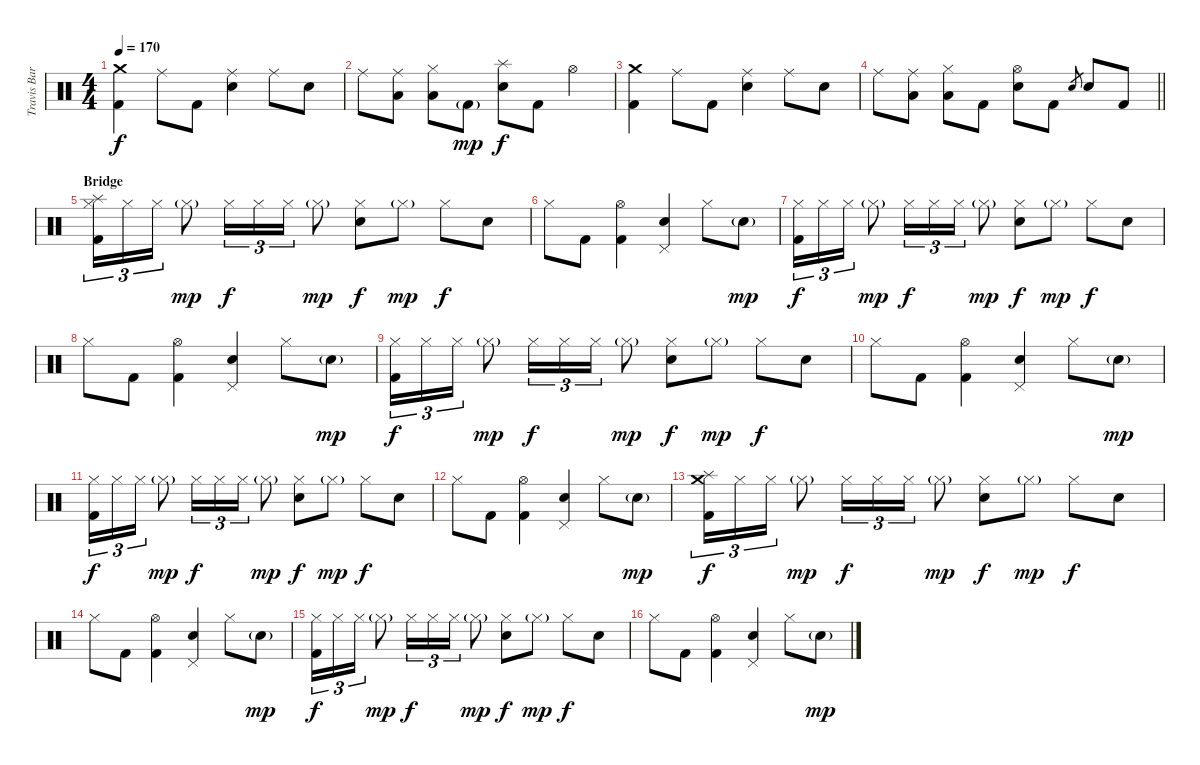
\track ("Travis Barker - Drums" "Travis Bar") {instrument percussion}
\staff {score}
\articulation defaults
\ts (4 4)
\tempo 170
\clef neutral
\ks c
("Crash medium (hit)" "Kick (hit) 2").4{dy f} "Ride (middle)".8 "Kick (hit) 2".8 ("Ride (middle)" "Electric Snare (hit)").4 "Ride (middle)".8 "Electric Snare (hit)".8 |
"Ride (middle)".8 ("Ride (middle)" "Low Tom (hit)").8 ("Hi-Hat (closed)" "Low Tom (hit)").8 "Kick (hit) 2"{g}.8{dy mp} ("Splash (hit)" "Electric Snare (hit)").8{dy f} "Kick (hit) 2".8 "Hi-Hat (open)".4 |
("Crash medium (hit)" "Kick (hit) 2").4 "Ride (middle)".8 "Kick (hit) 2".8 ("Ride (middle)" "Electric Snare (hit)").4 "Ride (middle)".8 "Electric Snare (hit)".8 |
\barLineRight lightlight "Ride (middle)".8
("Ride (middle)" "Low Tom (hit)").8 ("Hi-Hat (closed)" "Low Tom (hit)").8 "Kick (hit) 2".8 ("Hi-Hat (open)" "Electric Snare (hit)").8 "Kick (hit) 2".8 "Electric Snare (hit)".8{gr} "Electric Snare (hit)".8 "Kick (hit) 2".8 |
\section ("" "Bridge")
("Hi-Hat (closed)" "Splash (hit)" "Kick (hit) 2").16{tu (3 2)} "Hi-Hat (closed)".16{tu (3 2)} "Hi-Hat (closed)".16{tu (3 2)} "Hi-Hat (closed)"{g}.8{dy mp} "Hi-Hat (closed)".16{tu (3 2) dy f} "Hi-Hat (closed)".16{tu (3 2)} "Hi-Hat (closed)".16{tu (3 2)} "Hi-Hat (closed)"{g}.8{dy mp} ("Hi-Hat (closed)" "Electric Snare (hit)").8{dy f} "Hi-Hat (closed)"{g}.8{dy mp} "Hi-Hat (closed)".8{dy f} "Electric Snare (hit)".8 |
"Hi-Hat (closed)".8 "Kick (hit) 2".8 ("Hi-Hat (open)" "Kick (hit) 2").4 ("Pedal Hi-Hat (hit)" "Electric Snare (hit)").4 "Hi-Hat (closed)".8 "Electric Snare (hit)"{g}.8{dy mp} |
("Hi-Hat (closed)" "Kick (hit) 2").16{tu (3 2) dy f} "Hi-Hat (closed)".16{tu (3 2)} "Hi-Hat (closed)".16{tu (3 2)} "Hi-Hat (closed)"{g}.8{dy mp} "Hi-Hat (closed)".16{tu (3 2) dy f} "Hi-Hat (closed)".16{tu (3 2)} "Hi-Hat (closed)".16{tu (3 2)} "Hi-Hat (closed)"{g}.8{dy mp} ("Hi-Hat (closed)" "Electric Snare (hit)").8{dy f} "Hi-Hat (closed)"{g}.8{dy mp} "Hi-Hat (closed)".8{dy f} "Electric Snare (hit)".8 |
"Hi-Hat (closed)".8 "Kick (hit) 2".8 ("Hi-Hat (open)" "Kick (hit) 2").4 ("Pedal Hi-Hat (hit)" "Electric Snare (hit)").4 "Hi-Hat (closed)".8 "Electric Snare (hit)"{g}.8{dy mp} |
("Hi-Hat (closed)" "Kick (hit) 2").16{tu (3 2) dy f} "Hi-Hat (closed)".16{tu (3 2)} "Hi-Hat (closed)".16{tu (3 2)} "Hi-Hat (closed)"{g}.8{dy mp} "Hi-Hat (closed)".16{tu (3 2) dy f} "Hi-Hat (closed)".16{tu (3 2)} "Hi-Hat (closed)".16{tu (3 2)} "Hi-Hat (closed)"{g}.8{dy mp} ("Hi-Hat (closed)" "Electric Snare (hit)").8{dy f} "Hi-Hat (closed)"{g}.8{dy mp} "Hi-Hat (closed)".8{dy f} "Electric Snare (hit)".8 |
"Hi-Hat (closed)".8 "Kick (hit) 2".8 ("Hi-Hat (open)" "Kick (hit) 2").4 ("Pedal Hi-Hat (hit)" "Electric Snare (hit)").4 "Hi-Hat (closed)".8 "Electric Snare (hit)"{g}.8{dy mp} |
("Hi-Hat (closed)" "Kick (hit) 2").16{tu (3 2) dy f} "Hi-Hat (closed)".16{tu (3 2)} "Hi-Hat (closed)".16{tu (3 2)} "Hi-Hat (closed)"{g}.8{dy mp} "Hi-Hat (closed)".16{tu (3 2) dy f} "Hi-Hat (closed)".16{tu (3 2)} "Hi-Hat (closed)".16{tu (3 2)} "Hi-Hat (closed)"{g}.8{dy mp} ("Hi-Hat (closed)" "Electric Snare (hit)").8{dy f} "Hi-Hat (closed)"{g}.8{dy mp} "Hi-Hat (closed)".8{dy f} "Electric Snare (hit)".8 |
"Hi-Hat (closed)".8 "Kick (hit) 2".8 ("Hi-Hat (open)" "Kick (hit) 2").4 ("Pedal Hi-Hat (hit)" "Electric Snare (hit)").4 "Hi-Hat (closed)".8 "Electric Snare (hit)"{g}.8{dy mp} |
("Crash medium (hit)" "Splash (hit)" "Kick (hit) 2").16{tu (3 2) dy f} "Hi-Hat (closed)".16{tu (3 2)} "Hi-Hat (closed)".16{tu (3 2)} "Hi-Hat (closed)"{g}.8{dy mp} "Hi-Hat (closed)".16{tu (3 2) dy f} "Hi-Hat (closed)".16{tu (3 2)} "Hi-Hat (closed)".16{tu (3 2)} "Hi-Hat (closed)"{g}.8{dy mp} ("Hi-Hat (closed)" "Electric Snare (hit)").8{dy f} "Hi-Hat (closed)"{g}.8{dy mp} "Hi-Hat (closed)".8{dy f} "Electric Snare (hit)".8 |
"Hi-Hat (closed)".8 "Kick (hit) 2".8 ("Hi-Hat (open)" "Kick (hit) 2").4 ("Pedal Hi-Hat (hit)" "Electric Snare (hit)").4 "Hi-Hat (closed)".8 "Electric Snare (hit)"{g}.8{dy mp} |
("Hi-Hat (closed)" "Kick (hit) 2").16{tu (3 2) dy f} "Hi-Hat (closed)".16{tu (3 2)} "Hi-Hat (closed)".16{tu (3 2)} "Hi-Hat (closed)"{g}.8{dy mp} "Hi-Hat (closed)".16{tu (3 2) dy f} "Hi-Hat (closed)".16{tu (3 2)} "Hi-Hat (closed)".16{tu (3 2)} "Hi-Hat (closed)"{g}.8{dy mp} ("Hi-Hat (closed)" "Electric Snare (hit)").8{dy f} "Hi-Hat (closed)"{g}.8{dy mp} "Hi-Hat (closed)".8{dy f} "Electric Snare (hit)".8 |
"Hi-Hat (closed)".8 "Kick (hit) 2".8 ("Hi-Hat (open)" "Kick (hit) 2").4 ("Pedal Hi-Hat (hit)" "Electric Snare (hit)").4 "Hi-Hat (closed)".8 "Electric Snare (hit)"{g}.8{dy mp}
